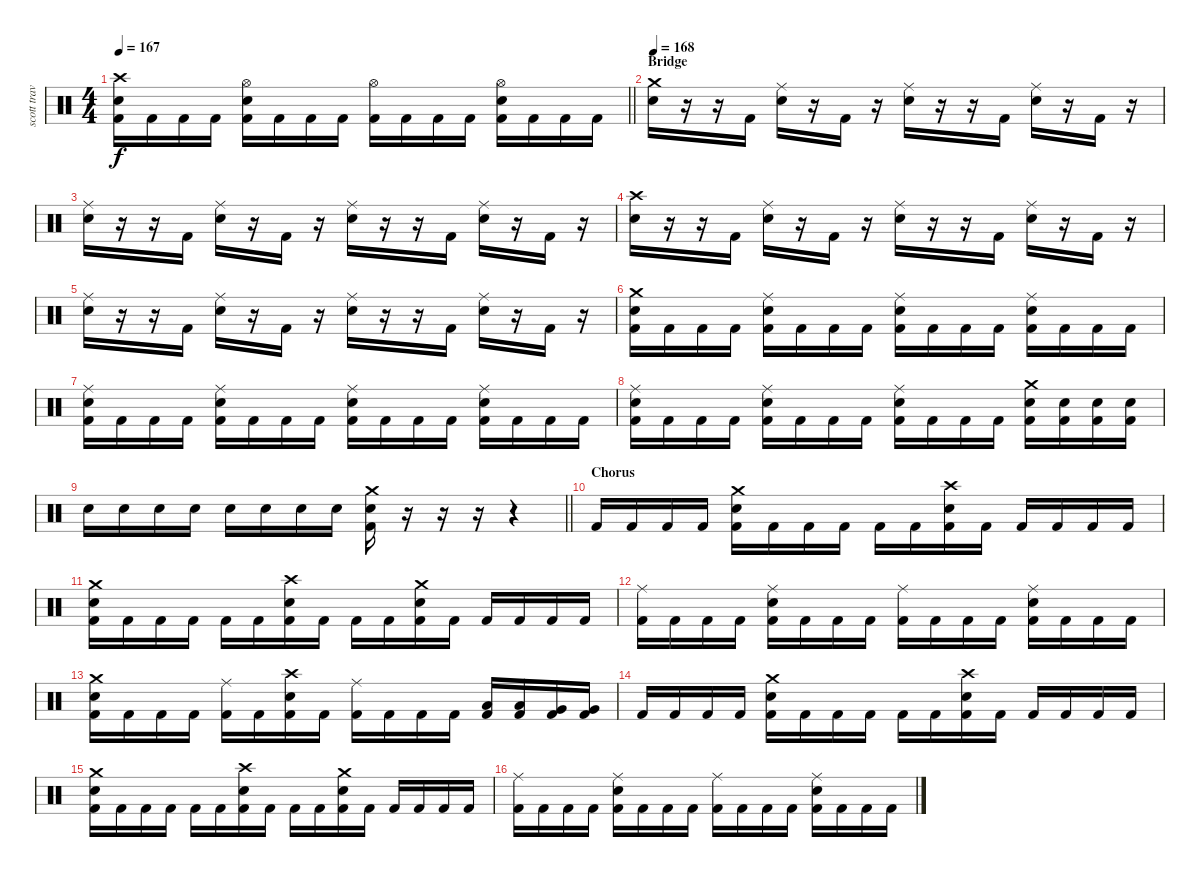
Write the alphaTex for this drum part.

\track ("scott travis" "scott trav") {instrument percussion}
\staff {score}
\articulation defaults
\ts (4 4)
\tempo 167
\clef neutral
\barLineRight lightlight
\ks c
("Crash high (hit)" "Snare (hit) 2" "Kick (hit) 2").16{dy f} "Kick (hit) 2".16 "Kick (hit) 2".16 "Kick (hit) 2".16 ("Hi-Hat (open)" "Snare (hit) 2" "Kick (hit) 2").16 "Kick (hit) 2".16 "Kick (hit) 2".16 "Kick (hit) 2".16 ("Hi-Hat (open)" "Kick (hit) 2").16 "Kick (hit) 2".16 "Kick (hit) 2".16 "Kick (hit) 2".16 ("Hi-Hat (open)" "Snare (hit) 2" "Kick (hit) 2").16 "Kick (hit) 2".16 "Kick (hit) 2".16 "Kick (hit) 2".16 |
\section ("" "Bridge")
\tempo 168
("Crash medium (hit)" "Snare (hit) 2").16 r.16 r.16 "Kick (hit) 2".16 ("Ride (middle)" "Snare (hit) 2").16 r.16 "Kick (hit) 2".16 r.16 ("Ride (middle)" "Snare (hit) 2").16 r.16 r.16 "Kick (hit) 2".16 ("Ride (middle)" "Snare (hit) 2").16 r.16 "Kick (hit) 2".16 r.16 |
("Ride (middle)" "Snare (hit) 2").16 r.16 r.16 "Kick (hit) 2".16 ("Ride (middle)" "Snare (hit) 2").16 r.16 "Kick (hit) 2".16 r.16 ("Ride (middle)" "Snare (hit) 2").16 r.16 r.16 "Kick (hit) 2".16 ("Ride (middle)" "Snare (hit) 2").16 r.16 "Kick (hit) 2".16 r.16 |
("Crash high (hit)" "Snare (hit) 2").16 r.16 r.16 "Kick (hit) 2".16 ("Ride (middle)" "Snare (hit) 2").16 r.16 "Kick (hit) 2".16 r.16 ("Ride (middle)" "Snare (hit) 2").16 r.16 r.16 "Kick (hit) 2".16 ("Ride (middle)" "Snare (hit) 2").16 r.16 "Kick (hit) 2".16 r.16 |
("Ride (middle)" "Snare (hit) 2").16 r.16 r.16 "Kick (hit) 2".16 ("Ride (middle)" "Snare (hit) 2").16 r.16 "Kick (hit) 2".16 r.16 ("Ride (middle)" "Snare (hit) 2").16 r.16 r.16 "Kick (hit) 2".16 ("Ride (middle)" "Snare (hit) 2").16 r.16 "Kick (hit) 2".16 r.16 |
("Crash medium (hit)" "Snare (hit) 2" "Kick (hit) 2").16 "Kick (hit) 2".16 "Kick (hit) 2".16 "Kick (hit) 2".16 ("Ride (middle)" "Snare (hit) 2" "Kick (hit) 2").16 "Kick (hit) 2".16 "Kick (hit) 2".16 "Kick (hit) 2".16 ("Ride (middle)" "Snare (hit) 2" "Kick (hit) 2").16 "Kick (hit) 2".16 "Kick (hit) 2".16 "Kick (hit) 2".16 ("Ride (middle)" "Snare (hit) 2" "Kick (hit) 2").16 "Kick (hit) 2".16 "Kick (hit) 2".16 "Kick (hit) 2".16 |
("Ride (middle)" "Snare (hit) 2" "Kick (hit) 2").16 "Kick (hit) 2".16 "Kick (hit) 2".16 "Kick (hit) 2".16 ("Ride (middle)" "Snare (hit) 2" "Kick (hit) 2").16 "Kick (hit) 2".16 "Kick (hit) 2".16 "Kick (hit) 2".16 ("Ride (middle)" "Snare (hit) 2" "Kick (hit) 2").16 "Kick (hit) 2".16 "Kick (hit) 2".16 "Kick (hit) 2".16 ("Ride (middle)" "Snare (hit) 2" "Kick (hit) 2").16 "Kick (hit) 2".16 "Kick (hit) 2".16 "Kick (hit) 2".16 |
("Ride (middle)" "Snare (hit) 2" "Kick (hit) 2").16 "Kick (hit) 2".16 "Kick (hit) 2".16 "Kick (hit) 2".16 ("Ride (middle)" "Snare (hit) 2" "Kick (hit) 2").16 "Kick (hit) 2".16 "Kick (hit) 2".16 "Kick (hit) 2".16 ("Ride (middle)" "Snare (hit) 2" "Kick (hit) 2").16 "Kick (hit) 2".16 "Kick (hit) 2".16 "Kick (hit) 2".16 ("Crash medium (hit)" "Snare (hit) 2" "Kick (hit) 2").16 ("Snare (hit) 2" "Kick (hit) 2").16 ("Snare (hit) 2" "Kick (hit) 2").16 ("Snare (hit) 2" "Kick (hit) 2").16 |
\barLineRight lightlight "Snare (hit) 2".16 "Snare (hit) 2".16 "Snare (hit) 2".16 "Snare (hit) 2".16 "Snare (hit) 2".16 "Snare (hit) 2".16 "Snare (hit) 2".16 "Snare (hit) 2".16
("Crash medium (hit)" "Snare (hit) 2" "Kick (hit) 2").16 r.16 r.16 r.16 r.4 |
\section ("" "Chorus")
"Kick (hit) 2".16 "Kick (hit) 2".16 "Kick (hit) 2".16 "Kick (hit) 2".16 ("Crash medium (hit)" "Snare (hit) 2" "Kick (hit) 2").16 "Kick (hit) 2".16 "Kick (hit) 2".16 "Kick (hit) 2".16 "Kick (hit) 2".16 "Kick (hit) 2".16 ("Crash high (hit)" "Snare (hit) 2" "Kick (hit) 2").16 "Kick (hit) 2".16 "Kick (hit) 2".16 "Kick (hit) 2".16 "Kick (hit) 2".16 "Kick (hit) 2".16 |
("Crash medium (hit)" "Snare (hit) 2" "Kick (hit) 2").16 "Kick (hit) 2".16 "Kick (hit) 2".16 "Kick (hit) 2".16 "Kick (hit) 2".16 "Kick (hit) 2".16 ("Crash high (hit)" "Snare (hit) 2" "Kick (hit) 2").16 "Kick (hit) 2".16 "Kick (hit) 2".16 "Kick (hit) 2".16 ("Crash medium (hit)" "Snare (hit) 2" "Kick (hit) 2").16 "Kick (hit) 2".16 "Kick (hit) 2".16 "Kick (hit) 2".16 "Kick (hit) 2".16 "Kick (hit) 2".16 |
("Ride (middle)" "Kick (hit) 2").16 "Kick (hit) 2".16 "Kick (hit) 2".16 "Kick (hit) 2".16 ("Ride (middle)" "Snare (hit) 2" "Kick (hit) 2").16 "Kick (hit) 2".16 "Kick (hit) 2".16 "Kick (hit) 2".16 ("Ride (middle)" "Kick (hit) 2").16 "Kick (hit) 2".16 "Kick (hit) 2".16 "Kick (hit) 2".16 ("Ride (middle)" "Snare (hit) 2" "Kick (hit) 2").16 "Kick (hit) 2".16 "Kick (hit) 2".16 "Kick (hit) 2".16 |
("Crash medium (hit)" "Snare (hit) 2" "Kick (hit) 2").16 "Kick (hit) 2".16 "Kick (hit) 2".16 "Kick (hit) 2".16 ("Ride (middle)" "Kick (hit) 2").16 "Kick (hit) 2".16 ("Crash high (hit)" "Snare (hit) 2" "Kick (hit) 2").16 "Kick (hit) 2".16 ("Ride (middle)" "Kick (hit) 2").16 "Kick (hit) 2".16 "Kick (hit) 2".16 "Kick (hit) 2".16 ("Low Tom (hit)" "Kick (hit) 2").16 ("Low Tom (hit)" "Kick (hit) 2").16 ("Very Low Tom (hit)" "Kick (hit) 2").16 ("Very Low Tom (hit)" "Kick (hit) 2").16 |
"Kick (hit) 2".16 "Kick (hit) 2".16 "Kick (hit) 2".16 "Kick (hit) 2".16 ("Crash medium (hit)" "Snare (hit) 2" "Kick (hit) 2").16 "Kick (hit) 2".16 "Kick (hit) 2".16 "Kick (hit) 2".16 "Kick (hit) 2".16 "Kick (hit) 2".16 ("Crash high (hit)" "Snare (hit) 2" "Kick (hit) 2").16 "Kick (hit) 2".16 "Kick (hit) 2".16 "Kick (hit) 2".16 "Kick (hit) 2".16 "Kick (hit) 2".16 |
("Crash medium (hit)" "Snare (hit) 2" "Kick (hit) 2").16 "Kick (hit) 2".16 "Kick (hit) 2".16 "Kick (hit) 2".16 "Kick (hit) 2".16 "Kick (hit) 2".16 ("Crash high (hit)" "Snare (hit) 2" "Kick (hit) 2").16 "Kick (hit) 2".16 "Kick (hit) 2".16 "Kick (hit) 2".16 ("Crash medium (hit)" "Snare (hit) 2" "Kick (hit) 2").16 "Kick (hit) 2".16 "Kick (hit) 2".16 "Kick (hit) 2".16 "Kick (hit) 2".16 "Kick (hit) 2".16 |
("Ride (middle)" "Kick (hit) 2").16 "Kick (hit) 2".16 "Kick (hit) 2".16 "Kick (hit) 2".16 ("Ride (middle)" "Snare (hit) 2" "Kick (hit) 2").16 "Kick (hit) 2".16 "Kick (hit) 2".16 "Kick (hit) 2".16 ("Ride (middle)" "Kick (hit) 2").16 "Kick (hit) 2".16 "Kick (hit) 2".16 "Kick (hit) 2".16 ("Ride (middle)" "Snare (hit) 2" "Kick (hit) 2").16 "Kick (hit) 2".16 "Kick (hit) 2".16 "Kick (hit) 2".16
